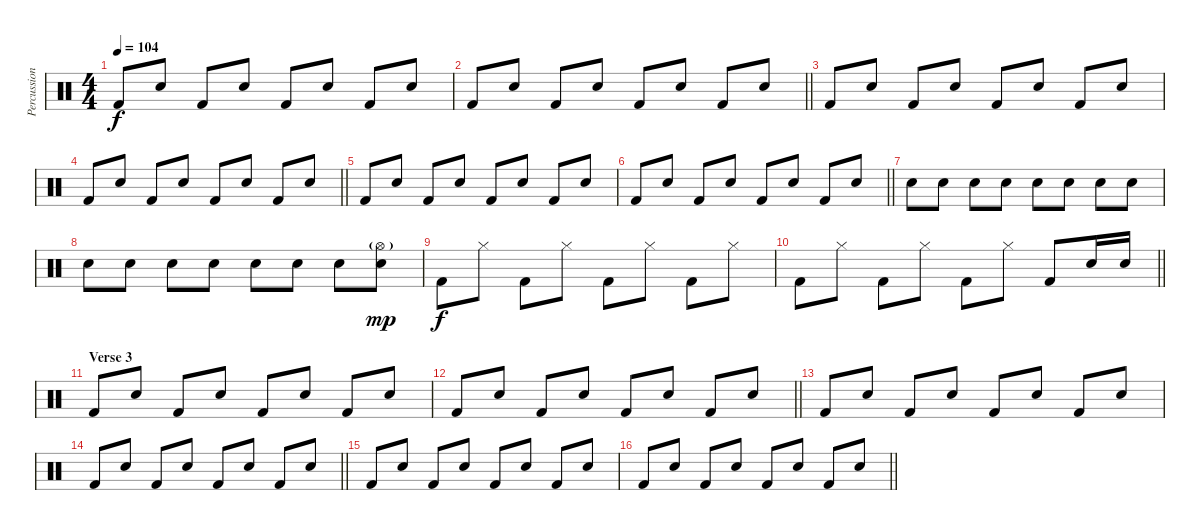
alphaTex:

\track ("Percussion" "Percussion") {instrument percussion}
\staff {score}
\articulation defaults
\ts (4 4)
\tempo 104
\clef neutral
\ks c "Kick (hit) 2".8{dy f} "Electric Snare (hit)".8 "Kick (hit) 2".8 "Electric Snare (hit)".8 "Kick (hit) 2".8 "Electric Snare (hit)".8 "Kick (hit) 2".8 "Electric Snare (hit)".8
|
\barLineRight lightlight "Kick (hit) 2".8 "Electric Snare (hit)".8 "Kick (hit) 2".8 "Electric Snare (hit)".8 "Kick (hit) 2".8 "Electric Snare (hit)".8 "Kick (hit) 2".8 "Electric Snare (hit)".8
|
"Kick (hit) 2".8 "Electric Snare (hit)".8 "Kick (hit) 2".8 "Electric Snare (hit)".8 "Kick (hit) 2".8 "Electric Snare (hit)".8 "Kick (hit) 2".8 "Electric Snare (hit)".8 |
\barLineRight lightlight "Kick (hit) 2".8 "Electric Snare (hit)".8 "Kick (hit) 2".8 "Electric Snare (hit)".8 "Kick (hit) 2".8 "Electric Snare (hit)".8 "Kick (hit) 2".8 "Electric Snare (hit)".8
|
"Kick (hit) 2".8 "Electric Snare (hit)".8 "Kick (hit) 2".8 "Electric Snare (hit)".8 "Kick (hit) 2".8 "Electric Snare (hit)".8 "Kick (hit) 2".8 "Electric Snare (hit)".8 |
\barLineRight lightlight "Kick (hit) 2".8 "Electric Snare (hit)".8 "Kick (hit) 2".8 "Electric Snare (hit)".8 "Kick (hit) 2".8 "Electric Snare (hit)".8 "Kick (hit) 2".8 "Electric Snare (hit)".8
|
"Electric Snare (hit)".8 "Electric Snare (hit)".8 "Electric Snare (hit)".8 "Electric Snare (hit)".8 "Electric Snare (hit)".8 "Electric Snare (hit)".8 "Electric Snare (hit)".8 "Electric Snare (hit)".8 |
"Electric Snare (hit)".8 "Electric Snare (hit)".8 "Electric Snare (hit)".8 "Electric Snare (hit)".8 "Electric Snare (hit)".8 "Electric Snare (hit)".8 "Electric Snare (hit)".8 ("Hi-Hat (open)"{g} "Electric Snare (hit)").8{dy mp} |
"Kick (hit) 2".8{dy f} "Hi-Hat (closed)".8 "Kick (hit) 2".8 "Hi-Hat (closed)".8 "Kick (hit) 2".8 "Hi-Hat (closed)".8 "Kick (hit) 2".8 "Hi-Hat (closed)".8 |
\barLineRight lightlight "Kick (hit) 2".8 "Hi-Hat (closed)".8 "Kick (hit) 2".8 "Hi-Hat (closed)".8 "Kick (hit) 2".8 "Hi-Hat (closed)".8 "Kick (hit) 2".8 "Electric Snare (hit)".16 "Electric Snare (hit)".16
|
\section ("" "Verse 3")
"Kick (hit) 2".8 "Electric Snare (hit)".8 "Kick (hit) 2".8 "Electric Snare (hit)".8 "Kick (hit) 2".8 "Electric Snare (hit)".8 "Kick (hit) 2".8 "Electric Snare (hit)".8 |
\barLineRight lightlight "Kick (hit) 2".8 "Electric Snare (hit)".8 "Kick (hit) 2".8 "Electric Snare (hit)".8 "Kick (hit) 2".8 "Electric Snare (hit)".8 "Kick (hit) 2".8 "Electric Snare (hit)".8
|
"Kick (hit) 2".8 "Electric Snare (hit)".8 "Kick (hit) 2".8 "Electric Snare (hit)".8 "Kick (hit) 2".8 "Electric Snare (hit)".8 "Kick (hit) 2".8 "Electric Snare (hit)".8 |
\barLineRight lightlight "Kick (hit) 2".8 "Electric Snare (hit)".8 "Kick (hit) 2".8 "Electric Snare (hit)".8 "Kick (hit) 2".8 "Electric Snare (hit)".8 "Kick (hit) 2".8 "Electric Snare (hit)".8
|
"Kick (hit) 2".8 "Electric Snare (hit)".8 "Kick (hit) 2".8 "Electric Snare (hit)".8 "Kick (hit) 2".8 "Electric Snare (hit)".8 "Kick (hit) 2".8 "Electric Snare (hit)".8 |
\barLineRight lightlight "Kick (hit) 2".8 "Electric Snare (hit)".8 "Kick (hit) 2".8 "Electric Snare (hit)".8 "Kick (hit) 2".8 "Electric Snare (hit)".8 "Kick (hit) 2".8 "Electric Snare (hit)".8
